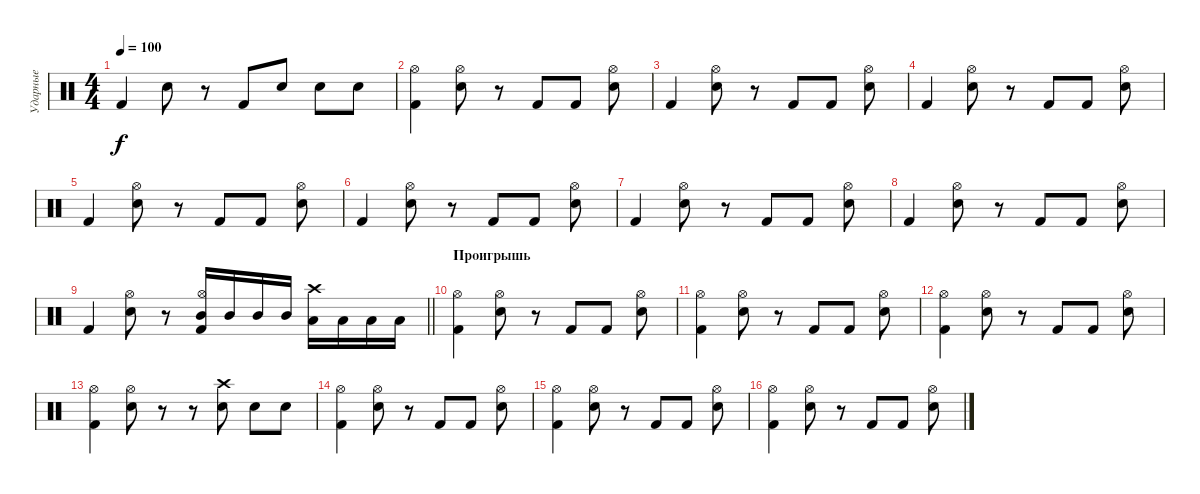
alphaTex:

\track ("Ударные" "Ударные") {instrument percussion}
\staff {score}
\articulation defaults
\ts (4 4)
\tempo 100
\clef neutral
\ks c "Kick (hit) 2".4{dy f} "Snare (hit) 2".8
r.8 "Kick (hit) 2".8 "Snare (hit) 2".8 "Snare (hit) 2".8 "Snare (hit) 2".8 |
("Kick (hit) 2" "Hi-Hat (open)").4 ("Snare (hit) 2" "Hi-Hat (open)").8 r.8 "Kick (hit) 2".8 "Kick (hit) 2".8 ("Snare (hit) 2" "Hi-Hat (open)").8 |
"Kick (hit) 2".4 ("Snare (hit) 2" "Hi-Hat (open)").8 r.8 "Kick (hit) 2".8 "Kick (hit) 2".8 ("Snare (hit) 2" "Hi-Hat (open)").8 |
"Kick (hit) 2".4 ("Snare (hit) 2" "Hi-Hat (open)").8 r.8 "Kick (hit) 2".8 "Kick (hit) 2".8 ("Snare (hit) 2" "Hi-Hat (open)").8 |
"Kick (hit) 2".4 ("Snare (hit) 2" "Hi-Hat (open)").8 r.8 "Kick (hit) 2".8 "Kick (hit) 2".8 ("Snare (hit) 2" "Hi-Hat (open)").8 |
"Kick (hit) 2".4 ("Snare (hit) 2" "Hi-Hat (open)").8 r.8 "Kick (hit) 2".8 "Kick (hit) 2".8 ("Snare (hit) 2" "Hi-Hat (open)").8 |
"Kick (hit) 2".4 ("Snare (hit) 2" "Hi-Hat (open)").8 r.8 "Kick (hit) 2".8 "Kick (hit) 2".8 ("Snare (hit) 2" "Hi-Hat (open)").8 |
"Kick (hit) 2".4 ("Snare (hit) 2" "Hi-Hat (open)").8 r.8 "Kick (hit) 2".8 "Kick (hit) 2".8 ("Snare (hit) 2" "Hi-Hat (open)").8 |
\barLineRight lightlight "Kick (hit) 2".4
("Snare (hit) 2" "Hi-Hat (open)").8 r.8 ("Mid Tom (hit)" "Kick (hit) 2" "Hi-Hat (open)").16 "Mid Tom (hit)".16 "Mid Tom (hit)".16 "Mid Tom (hit)".16 ("Low Tom (hit)" "Crash high (hit)").16 "Low Tom (hit)".16 "Low Tom (hit)".16 "Low Tom (hit)".16 |
\section ("" "Проигрышь")
("Kick (hit) 2" "Hi-Hat (open)").4 ("Snare (hit) 2" "Hi-Hat (open)").8 r.8 "Kick (hit) 2".8 "Kick (hit) 2".8 ("Snare (hit) 2" "Hi-Hat (open)").8 |
("Kick (hit) 2" "Hi-Hat (open)").4 ("Snare (hit) 2" "Hi-Hat (open)").8 r.8 "Kick (hit) 2".8 "Kick (hit) 2".8 ("Snare (hit) 2" "Hi-Hat (open)").8 |
("Kick (hit) 2" "Hi-Hat (open)").4 ("Snare (hit) 2" "Hi-Hat (open)").8 r.8 "Kick (hit) 2".8 "Kick (hit) 2".8 ("Snare (hit) 2" "Hi-Hat (open)").8 |
("Kick (hit) 2" "Hi-Hat (open)").4 ("Snare (hit) 2" "Hi-Hat (open)").8 r.8 r.8 ("Snare (hit) 2" "Crash high (hit)").8 "Snare (hit) 2".8 "Snare (hit) 2".8 |
("Kick (hit) 2" "Hi-Hat (open)").4 ("Snare (hit) 2" "Hi-Hat (open)").8 r.8 "Kick (hit) 2".8 "Kick (hit) 2".8 ("Snare (hit) 2" "Hi-Hat (open)").8 |
("Kick (hit) 2" "Hi-Hat (open)").4 ("Snare (hit) 2" "Hi-Hat (open)").8 r.8 "Kick (hit) 2".8 "Kick (hit) 2".8 ("Snare (hit) 2" "Hi-Hat (open)").8 |
("Kick (hit) 2" "Hi-Hat (open)").4 ("Snare (hit) 2" "Hi-Hat (open)").8 r.8 "Kick (hit) 2".8 "Kick (hit) 2".8 ("Snare (hit) 2" "Hi-Hat (open)").8
